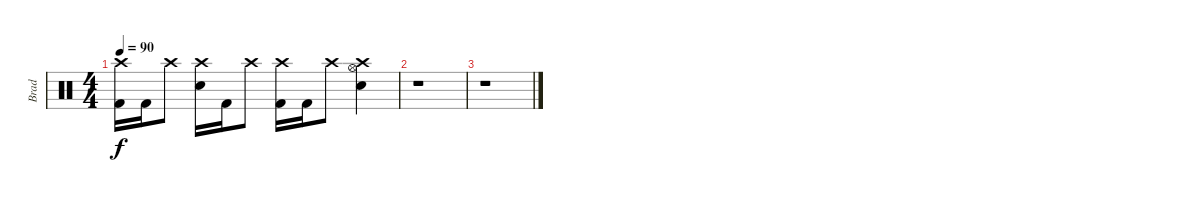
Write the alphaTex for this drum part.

\track ("Brad" "Brad") {instrument percussion}
\staff {score}
\articulation defaults
\ts (4 4)
\tempo 90
\clef neutral
\ks c
("Crash high (hit)" "Kick (hit) 2").16{dy f} "Kick (hit) 2".16 "Crash high (hit)".8 ("Crash high (hit)" "Electric Snare (hit)").16 "Kick (hit) 2".16 "Crash high (hit)".8 ("Crash high (hit)" "Kick (hit) 2").16 "Kick (hit) 2".16 "Crash high (hit)".8 ("Crash high (hit)" "Hi-Hat (open)" "Electric Snare (hit)").4 |
r.1 |
r.1
